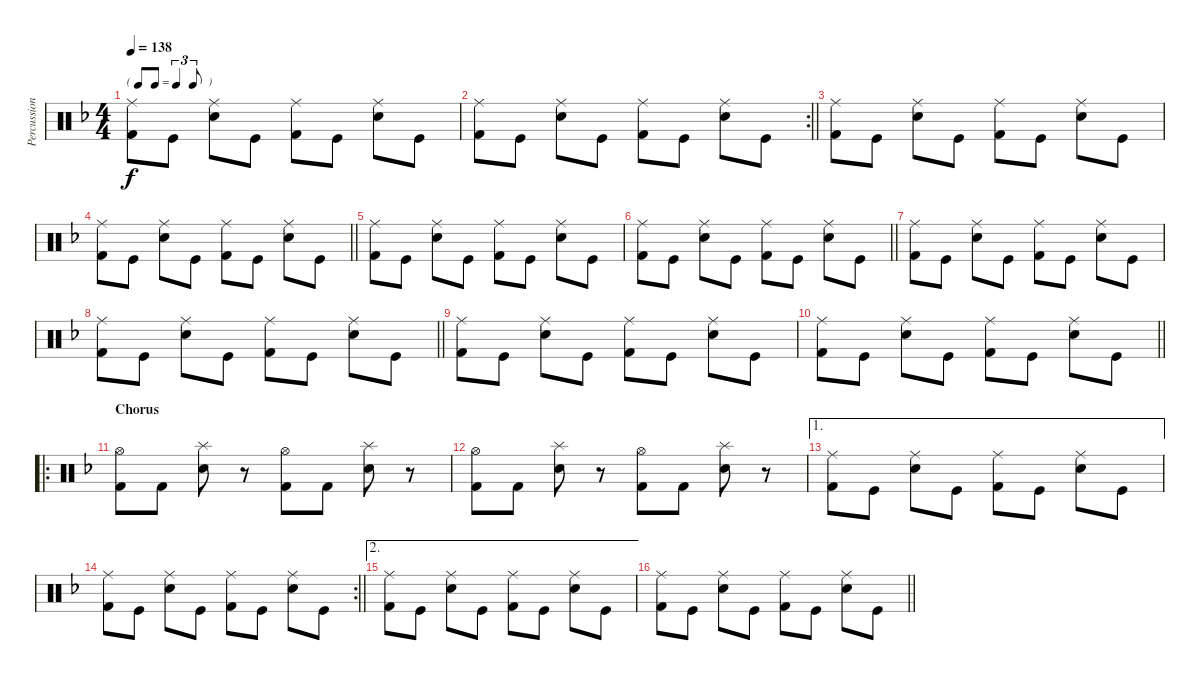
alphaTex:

\track ("Percussion" "Percussion") {instrument percussion}
\staff {score}
\articulation defaults
\ts (4 4)
\tf triplet8th
\tempo 138
\clef neutral
\ks f
("Ride (middle)" "Kick (hit) 2").8{dy f} "Kick (hit)".8 ("Ride (middle)" "Snare (hit) 2").8 "Kick (hit)".8 ("Ride (middle)" "Kick (hit) 2").8 "Kick (hit)".8 ("Ride (middle)" "Snare (hit) 2").8 "Kick (hit)".8 |
\rc 2
\barLineRight lightlight
("Ride (middle)" "Kick (hit) 2").8 "Kick (hit)".8 ("Ride (middle)" "Snare (hit) 2").8 "Kick (hit)".8 ("Ride (middle)" "Kick (hit) 2").8 "Kick (hit)".8 ("Ride (middle)" "Snare (hit) 2").8 "Kick (hit)".8 |
("Ride (middle)" "Kick (hit) 2").8 "Kick (hit)".8 ("Ride (middle)" "Snare (hit) 2").8 "Kick (hit)".8 ("Ride (middle)" "Kick (hit) 2").8 "Kick (hit)".8 ("Ride (middle)" "Snare (hit) 2").8 "Kick (hit)".8 |
\barLineRight lightlight
("Ride (middle)" "Kick (hit) 2").8 "Kick (hit)".8 ("Ride (middle)" "Snare (hit) 2").8 "Kick (hit)".8 ("Ride (middle)" "Kick (hit) 2").8 "Kick (hit)".8 ("Ride (middle)" "Snare (hit) 2").8 "Kick (hit)".8 |
("Ride (middle)" "Kick (hit) 2").8 "Kick (hit)".8 ("Ride (middle)" "Snare (hit) 2").8 "Kick (hit)".8 ("Ride (middle)" "Kick (hit) 2").8 "Kick (hit)".8 ("Ride (middle)" "Snare (hit) 2").8 "Kick (hit)".8 |
\barLineRight lightlight
("Ride (middle)" "Kick (hit) 2").8 "Kick (hit)".8 ("Ride (middle)" "Snare (hit) 2").8 "Kick (hit)".8 ("Ride (middle)" "Kick (hit) 2").8 "Kick (hit)".8 ("Ride (middle)" "Snare (hit) 2").8 "Kick (hit)".8 |
("Ride (middle)" "Kick (hit) 2").8 "Kick (hit)".8 ("Ride (middle)" "Snare (hit) 2").8 "Kick (hit)".8 ("Ride (middle)" "Kick (hit) 2").8 "Kick (hit)".8 ("Ride (middle)" "Snare (hit) 2").8 "Kick (hit)".8 |
\barLineRight lightlight
("Ride (middle)" "Kick (hit) 2").8 "Kick (hit)".8 ("Ride (middle)" "Snare (hit) 2").8 "Kick (hit)".8 ("Ride (middle)" "Kick (hit) 2").8 "Kick (hit)".8 ("Ride (middle)" "Snare (hit) 2").8 "Kick (hit)".8 |
("Ride (middle)" "Kick (hit) 2").8 "Kick (hit)".8 ("Ride (middle)" "Snare (hit) 2").8 "Kick (hit)".8 ("Ride (middle)" "Kick (hit) 2").8 "Kick (hit)".8 ("Ride (middle)" "Snare (hit) 2").8 "Kick (hit)".8 |
\barLineRight lightlight
("Ride (middle)" "Kick (hit) 2").8 "Kick (hit)".8 ("Ride (middle)" "Snare (hit) 2").8 "Kick (hit)".8 ("Ride (middle)" "Kick (hit) 2").8 "Kick (hit)".8 ("Ride (middle)" "Snare (hit) 2").8 "Kick (hit)".8 |
\ro
\section ("" "Chorus")
("Hi-Hat (open)" "Kick (hit) 2").8 "Kick (hit) 2".8 ("Splash (hit)" "Snare (hit) 2").8 r.8 ("Hi-Hat (open)" "Kick (hit) 2").8 "Kick (hit) 2".8 ("Splash (hit)" "Snare (hit) 2").8 r.8 |
("Hi-Hat (open)" "Kick (hit) 2").8 "Kick (hit) 2".8 ("Splash (hit)" "Snare (hit) 2").8 r.8 ("Hi-Hat (open)" "Kick (hit) 2").8 "Kick (hit) 2".8 ("Splash (hit)" "Snare (hit) 2").8 r.8 |
\ae 1
("Ride (middle)" "Kick (hit) 2").8 "Kick (hit)".8 ("Ride (middle)" "Snare (hit) 2").8 "Kick (hit)".8 ("Ride (middle)" "Kick (hit) 2").8 "Kick (hit)".8 ("Ride (middle)" "Snare (hit) 2").8 "Kick (hit)".8 |
\rc 2
\barLineRight lightlight
("Ride (middle)" "Kick (hit) 2").8 "Kick (hit)".8 ("Ride (middle)" "Snare (hit) 2").8 "Kick (hit)".8 ("Ride (middle)" "Kick (hit) 2").8 "Kick (hit)".8 ("Ride (middle)" "Snare (hit) 2").8 "Kick (hit)".8 |
\ae 2
("Ride (middle)" "Kick (hit) 2").8 "Kick (hit)".8 ("Ride (middle)" "Snare (hit) 2").8 "Kick (hit)".8 ("Ride (middle)" "Kick (hit) 2").8 "Kick (hit)".8 ("Ride (middle)" "Snare (hit) 2").8 "Kick (hit)".8 |
\barLineRight lightlight
("Ride (middle)" "Kick (hit) 2").8 "Kick (hit)".8 ("Ride (middle)" "Snare (hit) 2").8 "Kick (hit)".8 ("Ride (middle)" "Kick (hit) 2").8 "Kick (hit)".8 ("Ride (middle)" "Snare (hit) 2").8 "Kick (hit)".8
